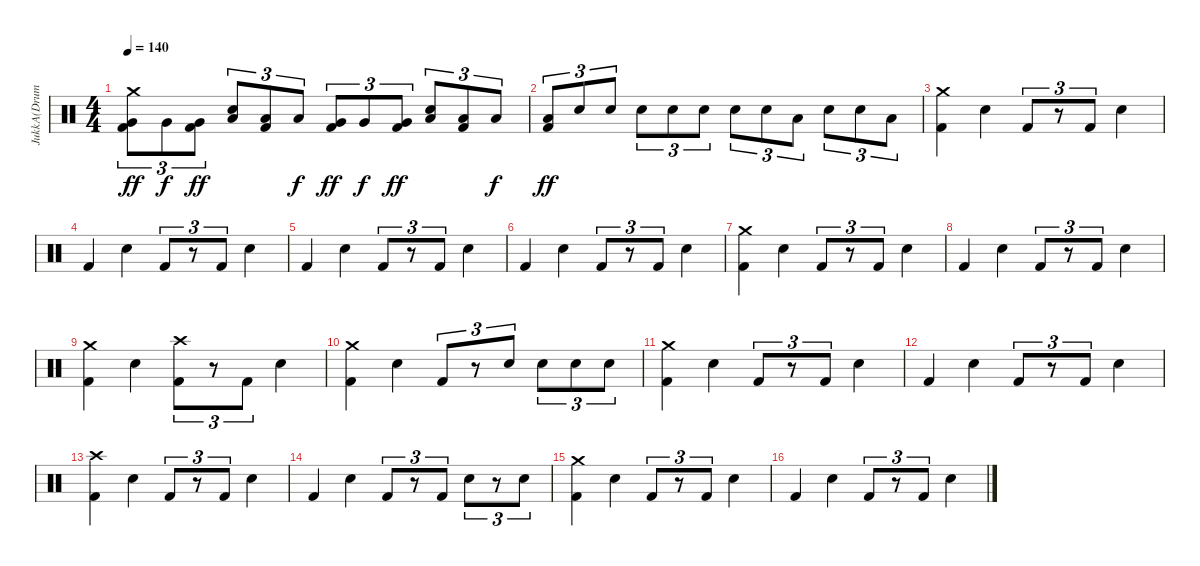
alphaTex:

\track ("JukkA(Drums)" "JukkA(Drum") {instrument percussion}
\staff {score}
\articulation defaults
\ts (4 4)
\tempo 140
\clef neutral
\ks c
("Kick (hit) 2" "Very Low Tom (hit)" "Crash medium (hit)").8{tu (3 2) dy ff} "Very Low Tom (hit)".8{tu (3 2) dy f} ("Kick (hit) 2" "Very Low Tom (hit)").8{tu (3 2) dy ff} ("Snare (hit) 2" "Low Tom (hit)").8{tu (3 2)} ("Kick (hit) 2" "Low Floor Tom (hit)").8{tu (3 2)} "Low Floor Tom (hit)".8{tu (3 2) dy f} ("Kick (hit) 2" "Very Low Tom (hit)").8{tu (3 2) dy ff} "Very Low Tom (hit)".8{tu (3 2) dy f} ("Kick (hit) 2" "Very Low Tom (hit)").8{tu (3 2) dy ff} ("Snare (hit) 2" "Low Tom (hit)").8{tu (3 2)} ("Kick (hit) 2" "Low Floor Tom (hit)").8{tu (3 2)} "Low Floor Tom (hit)".8{tu (3 2) dy f} |
("Kick (hit) 2" "Low Floor Tom (hit)").8{tu (3 2) dy ff} "Snare (hit) 2".8{tu (3 2)} "Snare (hit) 2".8{tu (3 2)} "Snare (hit) 2".8{tu (3 2)} "Snare (hit) 2".8{tu (3 2)} "Snare (hit) 2".8{tu (3 2)} "Snare (hit) 2".8{tu (3 2)} "Snare (hit) 2".8{tu (3 2)} "Low Tom (hit)".8{tu (3 2)} "Snare (hit) 2".8{tu (3 2)} "Snare (hit) 2".8{tu (3 2)} "Low Floor Tom (hit)".8{tu (3 2)} |
("Kick (hit) 2" "Crash medium (hit)").4 "Snare (hit) 2".4 "Kick (hit) 2".8{tu (3 2)} r.8{tu (3 2)} "Kick (hit) 2".8{tu (3 2)} "Snare (hit) 2".4 |
"Kick (hit) 2".4 "Snare (hit) 2".4 "Kick (hit) 2".8{tu (3 2)} r.8{tu (3 2)} "Kick (hit) 2".8{tu (3 2)} "Snare (hit) 2".4 |
"Kick (hit) 2".4 "Snare (hit) 2".4 "Kick (hit) 2".8{tu (3 2)} r.8{tu (3 2)} "Kick (hit) 2".8{tu (3 2)} "Snare (hit) 2".4 |
"Kick (hit) 2".4 "Snare (hit) 2".4 "Kick (hit) 2".8{tu (3 2)} r.8{tu (3 2)} "Kick (hit) 2".8{tu (3 2)} "Snare (hit) 2".4 |
("Kick (hit) 2" "Crash medium (hit)").4 "Snare (hit) 2".4 "Kick (hit) 2".8{tu (3 2)} r.8{tu (3 2)} "Kick (hit) 2".8{tu (3 2)} "Snare (hit) 2".4 |
"Kick (hit) 2".4 "Snare (hit) 2".4 "Kick (hit) 2".8{tu (3 2)} r.8{tu (3 2)} "Kick (hit) 2".8{tu (3 2)} "Snare (hit) 2".4 |
("Kick (hit) 2" "Crash medium (hit)").4 "Snare (hit) 2".4 ("Kick (hit) 2" "Crash high (hit)").8{tu (3 2)} r.8{tu (3 2)} "Kick (hit) 2".8{tu (3 2)} "Snare (hit) 2".4 |
("Kick (hit) 2" "Crash medium (hit)").4 "Snare (hit) 2".4 "Kick (hit) 2".8{tu (3 2)} r.8{tu (3 2)} "Snare (hit) 2".8{tu (3 2)} "Snare (hit) 2".8{tu (3 2)} "Snare (hit) 2".8{tu (3 2)} "Snare (hit) 2".8{tu (3 2)} |
("Kick (hit) 2" "Crash medium (hit)").4 "Snare (hit) 2".4 "Kick (hit) 2".8{tu (3 2)} r.8{tu (3 2)} "Kick (hit) 2".8{tu (3 2)} "Snare (hit) 2".4 |
"Kick (hit) 2".4 "Snare (hit) 2".4 "Kick (hit) 2".8{tu (3 2)} r.8{tu (3 2)} "Kick (hit) 2".8{tu (3 2)} "Snare (hit) 2".4 |
("Kick (hit) 2" "Crash high (hit)").4 "Snare (hit) 2".4 "Kick (hit) 2".8{tu (3 2)} r.8{tu (3 2)} "Kick (hit) 2".8{tu (3 2)} "Snare (hit) 2".4 |
"Kick (hit) 2".4 "Snare (hit) 2".4 "Kick (hit) 2".8{tu (3 2)} r.8{tu (3 2)} "Kick (hit) 2".8{tu (3 2)} "Snare (hit) 2".8{tu (3 2)} r.8{tu (3 2)} "Snare (hit) 2".8{tu (3 2)} |
("Kick (hit) 2" "Crash medium (hit)").4 "Snare (hit) 2".4 "Kick (hit) 2".8{tu (3 2)} r.8{tu (3 2)} "Kick (hit) 2".8{tu (3 2)} "Snare (hit) 2".4 |
"Kick (hit) 2".4 "Snare (hit) 2".4 "Kick (hit) 2".8{tu (3 2)} r.8{tu (3 2)} "Kick (hit) 2".8{tu (3 2)} "Snare (hit) 2".4
